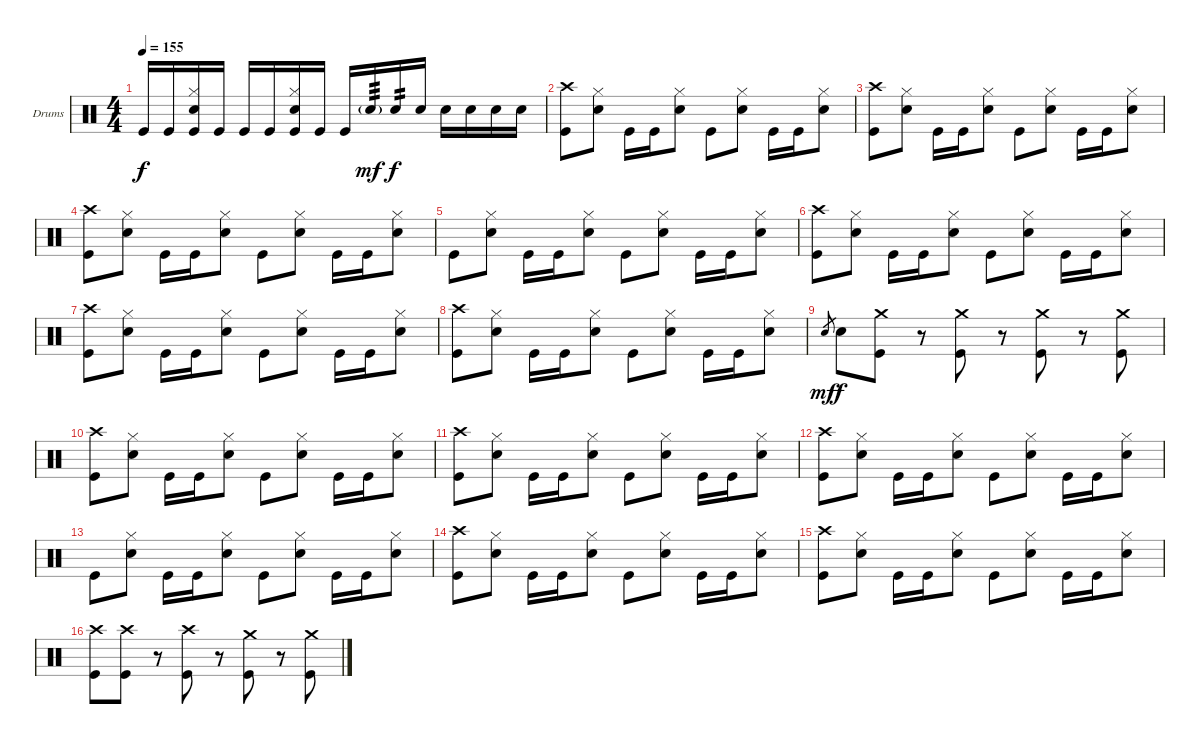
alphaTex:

\bracketExtendMode groupsimilarinstruments
\firstSystemTrackNameOrientation horizontal
\otherSystemsTrackNameOrientation horizontal
\track ("Drumkit" "Drums") {instrument percussion}
\staff {score}
\articulation defaults
\ts (4 4)
\tempo 155
\clef neutral
\ks c "Kick (hit)".16{dy f} "Kick (hit)".16
("Hi-Hat (closed)" "Snare (hit) 2" "Kick (hit)").16 "Kick (hit)".16 "Kick (hit)".16 "Kick (hit)".16 ("Hi-Hat (closed)" "Snare (hit) 2" "Kick (hit)").16 "Kick (hit)".16 "Kick (hit)".16 "Snare (hit) 2"{g}.16{tp 3 dy mf} "Snare (hit) 2".16{tp 2 dy f} "Snare (hit) 2".16 "Snare (hit) 2".16 "Snare (hit) 2".16 "Snare (hit) 2".16 "Snare (hit) 2".16 |
("Crash high (hit)" "Kick (hit)").8 ("Hi-Hat (closed)" "Snare (hit) 2").8 "Kick (hit)".16 "Kick (hit)".16 ("Hi-Hat (closed)" "Snare (hit) 2").8 "Kick (hit)".8 ("Hi-Hat (closed)" "Snare (hit) 2").8 "Kick (hit)".16 "Kick (hit)".16 ("Hi-Hat (closed)" "Snare (hit) 2").8 |
("Crash high (hit)" "Kick (hit)").8 ("Hi-Hat (closed)" "Snare (hit) 2").8 "Kick (hit)".16 "Kick (hit)".16 ("Hi-Hat (closed)" "Snare (hit) 2").8 "Kick (hit)".8 ("Hi-Hat (closed)" "Snare (hit) 2").8 "Kick (hit)".16 "Kick (hit)".16 ("Hi-Hat (closed)" "Snare (hit) 2").8 |
("Crash high (hit)" "Kick (hit)").8 ("Hi-Hat (closed)" "Snare (hit) 2").8 "Kick (hit)".16 "Kick (hit)".16 ("Hi-Hat (closed)" "Snare (hit) 2").8 "Kick (hit)".8 ("Hi-Hat (closed)" "Snare (hit) 2").8 "Kick (hit)".16 "Kick (hit)".16 ("Hi-Hat (closed)" "Snare (hit) 2").8 |
"Kick (hit)".8 ("Hi-Hat (closed)" "Snare (hit) 2").8 "Kick (hit)".16 "Kick (hit)".16 ("Hi-Hat (closed)" "Snare (hit) 2").8 "Kick (hit)".8 ("Hi-Hat (closed)" "Snare (hit) 2").8 "Kick (hit)".16 "Kick (hit)".16 ("Hi-Hat (closed)" "Snare (hit) 2").8 |
("Crash high (hit)" "Kick (hit)").8 ("Hi-Hat (closed)" "Snare (hit) 2").8 "Kick (hit)".16 "Kick (hit)".16 ("Hi-Hat (closed)" "Snare (hit) 2").8 "Kick (hit)".8 ("Hi-Hat (closed)" "Snare (hit) 2").8 "Kick (hit)".16 "Kick (hit)".16 ("Hi-Hat (closed)" "Snare (hit) 2").8 |
("Crash high (hit)" "Kick (hit)").8 ("Hi-Hat (closed)" "Snare (hit) 2").8 "Kick (hit)".16 "Kick (hit)".16 ("Hi-Hat (closed)" "Snare (hit) 2").8 "Kick (hit)".8 ("Hi-Hat (closed)" "Snare (hit) 2").8 "Kick (hit)".16 "Kick (hit)".16 ("Hi-Hat (closed)" "Snare (hit) 2").8 |
("Crash high (hit)" "Kick (hit)").8 ("Hi-Hat (closed)" "Snare (hit) 2").8 "Kick (hit)".16 "Kick (hit)".16 ("Hi-Hat (closed)" "Snare (hit) 2").8 "Kick (hit)".8 ("Hi-Hat (closed)" "Snare (hit) 2").8 "Kick (hit)".16 "Kick (hit)".16 ("Hi-Hat (closed)" "Snare (hit) 2").8 |
"Snare (hit) 2".8{gr dy mf} "Snare (hit) 2".8{dy f} ("Crash medium (hit)" "Kick (hit)").8 r.8 ("Crash medium (hit)" "Kick (hit)").8 r.8 ("Crash medium (hit)" "Kick (hit)").8 r.8 ("Crash medium (hit)" "Kick (hit)").8 |
("Crash high (hit)" "Kick (hit)").8 ("Hi-Hat (closed)" "Snare (hit) 2").8 "Kick (hit)".16 "Kick (hit)".16 ("Hi-Hat (closed)" "Snare (hit) 2").8 "Kick (hit)".8 ("Hi-Hat (closed)" "Snare (hit) 2").8 "Kick (hit)".16 "Kick (hit)".16 ("Hi-Hat (closed)" "Snare (hit) 2").8 |
("Crash high (hit)" "Kick (hit)").8 ("Hi-Hat (closed)" "Snare (hit) 2").8 "Kick (hit)".16 "Kick (hit)".16 ("Hi-Hat (closed)" "Snare (hit) 2").8 "Kick (hit)".8 ("Hi-Hat (closed)" "Snare (hit) 2").8 "Kick (hit)".16 "Kick (hit)".16 ("Hi-Hat (closed)" "Snare (hit) 2").8 |
("Crash high (hit)" "Kick (hit)").8 ("Hi-Hat (closed)" "Snare (hit) 2").8 "Kick (hit)".16 "Kick (hit)".16 ("Hi-Hat (closed)" "Snare (hit) 2").8 "Kick (hit)".8 ("Hi-Hat (closed)" "Snare (hit) 2").8 "Kick (hit)".16 "Kick (hit)".16 ("Hi-Hat (closed)" "Snare (hit) 2").8 |
"Kick (hit)".8 ("Hi-Hat (closed)" "Snare (hit) 2").8 "Kick (hit)".16 "Kick (hit)".16 ("Hi-Hat (closed)" "Snare (hit) 2").8 "Kick (hit)".8 ("Hi-Hat (closed)" "Snare (hit) 2").8 "Kick (hit)".16 "Kick (hit)".16 ("Hi-Hat (closed)" "Snare (hit) 2").8 |
("Crash high (hit)" "Kick (hit)").8 ("Hi-Hat (closed)" "Snare (hit) 2").8 "Kick (hit)".16 "Kick (hit)".16 ("Hi-Hat (closed)" "Snare (hit) 2").8 "Kick (hit)".8 ("Hi-Hat (closed)" "Snare (hit) 2").8 "Kick (hit)".16 "Kick (hit)".16 ("Hi-Hat (closed)" "Snare (hit) 2").8 |
("Crash high (hit)" "Kick (hit)").8 ("Hi-Hat (closed)" "Snare (hit) 2").8 "Kick (hit)".16 "Kick (hit)".16 ("Hi-Hat (closed)" "Snare (hit) 2").8 "Kick (hit)".8 ("Hi-Hat (closed)" "Snare (hit) 2").8 "Kick (hit)".16 "Kick (hit)".16 ("Hi-Hat (closed)" "Snare (hit) 2").8 |
("Crash high (hit)" "Kick (hit)").8 ("Crash high (hit)" "Kick (hit)").8 r.8 ("Crash high (hit)" "Kick (hit)").8 r.8 ("Crash medium (hit)" "Kick (hit)").8 r.8 ("Crash medium (hit)" "Kick (hit)").8
